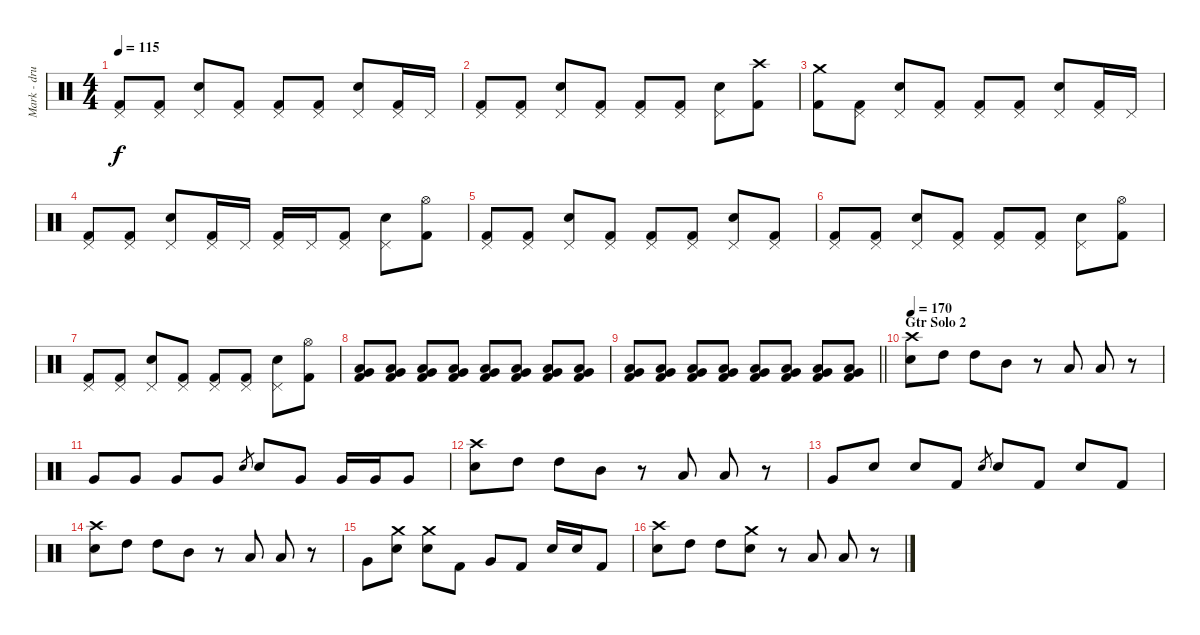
\track ("Mark - drums" "Mark - dru") {instrument percussion}
\staff {score}
\articulation defaults
\ts (4 4)
\tempo 115
\clef neutral
\ks c
("Kick (hit) 2" "Pedal Hi-Hat (hit)").8{dy f} ("Kick (hit) 2" "Pedal Hi-Hat (hit)").8 ("Electric Snare (hit)" "Pedal Hi-Hat (hit)").8 ("Kick (hit) 2" "Pedal Hi-Hat (hit)").8 ("Kick (hit) 2" "Pedal Hi-Hat (hit)").8 ("Kick (hit) 2" "Pedal Hi-Hat (hit)").8 ("Electric Snare (hit)" "Pedal Hi-Hat (hit)").8 ("Kick (hit) 2" "Pedal Hi-Hat (hit)").16 "Pedal Hi-Hat (hit)".16 |
("Kick (hit) 2" "Pedal Hi-Hat (hit)").8 ("Kick (hit) 2" "Pedal Hi-Hat (hit)").8 ("Electric Snare (hit)" "Pedal Hi-Hat (hit)").8 ("Kick (hit) 2" "Pedal Hi-Hat (hit)").8 ("Kick (hit) 2" "Pedal Hi-Hat (hit)").8 ("Kick (hit) 2" "Pedal Hi-Hat (hit)").8 ("Electric Snare (hit)" "Pedal Hi-Hat (hit)").8 ("Kick (hit) 2" "Crash high (hit)").8 |
("Kick (hit) 2" "Crash medium (hit)").8 ("Kick (hit) 2" "Pedal Hi-Hat (hit)").8 ("Electric Snare (hit)" "Pedal Hi-Hat (hit)").8 ("Kick (hit) 2" "Pedal Hi-Hat (hit)").8 ("Kick (hit) 2" "Pedal Hi-Hat (hit)").8 ("Kick (hit) 2" "Pedal Hi-Hat (hit)").8 ("Electric Snare (hit)" "Pedal Hi-Hat (hit)").8 ("Kick (hit) 2" "Pedal Hi-Hat (hit)").16 "Pedal Hi-Hat (hit)".16 |
("Kick (hit) 2" "Pedal Hi-Hat (hit)").8 ("Kick (hit) 2" "Pedal Hi-Hat (hit)").8 ("Electric Snare (hit)" "Pedal Hi-Hat (hit)").8 ("Kick (hit) 2" "Pedal Hi-Hat (hit)").16 "Pedal Hi-Hat (hit)".16 ("Kick (hit) 2" "Pedal Hi-Hat (hit)").16 "Pedal Hi-Hat (hit)".16 ("Kick (hit) 2" "Pedal Hi-Hat (hit)").8 ("Electric Snare (hit)" "Pedal Hi-Hat (hit)").8 ("Kick (hit) 2" "Hi-Hat (open)").8 |
("Kick (hit) 2" "Pedal Hi-Hat (hit)").8 ("Kick (hit) 2" "Pedal Hi-Hat (hit)").8 ("Electric Snare (hit)" "Pedal Hi-Hat (hit)").8 ("Kick (hit) 2" "Pedal Hi-Hat (hit)").8 ("Kick (hit) 2" "Pedal Hi-Hat (hit)").8 ("Kick (hit) 2" "Pedal Hi-Hat (hit)").8 ("Electric Snare (hit)" "Pedal Hi-Hat (hit)").8 ("Kick (hit) 2" "Pedal Hi-Hat (hit)").8 |
("Kick (hit) 2" "Pedal Hi-Hat (hit)").8 ("Kick (hit) 2" "Pedal Hi-Hat (hit)").8 ("Electric Snare (hit)" "Pedal Hi-Hat (hit)").8 ("Kick (hit) 2" "Pedal Hi-Hat (hit)").8 ("Kick (hit) 2" "Pedal Hi-Hat (hit)").8 ("Kick (hit) 2" "Pedal Hi-Hat (hit)").8 ("Electric Snare (hit)" "Pedal Hi-Hat (hit)").8 ("Kick (hit) 2" "Hi-Hat (open)").8 |
("Kick (hit) 2" "Pedal Hi-Hat (hit)").8 ("Kick (hit) 2" "Pedal Hi-Hat (hit)").8 ("Electric Snare (hit)" "Pedal Hi-Hat (hit)").8 ("Kick (hit) 2" "Pedal Hi-Hat (hit)").8 ("Kick (hit) 2" "Pedal Hi-Hat (hit)").8 ("Kick (hit) 2" "Pedal Hi-Hat (hit)").8 ("Electric Snare (hit)" "Pedal Hi-Hat (hit)").8 ("Kick (hit) 2" "Hi-Hat (open)").8 |
("Kick (hit) 2" "Low Tom (hit)" "Very Low Tom (hit)").8 ("Kick (hit) 2" "Low Tom (hit)" "Very Low Tom (hit)").8 ("Kick (hit) 2" "Low Tom (hit)" "Very Low Tom (hit)").8 ("Kick (hit) 2" "Low Tom (hit)" "Very Low Tom (hit)").8 ("Kick (hit) 2" "Low Tom (hit)" "Very Low Tom (hit)").8 ("Kick (hit) 2" "Low Tom (hit)" "Very Low Tom (hit)").8 ("Kick (hit) 2" "Low Tom (hit)" "Very Low Tom (hit)").8 ("Kick (hit) 2" "Low Tom (hit)" "Very Low Tom (hit)").8 |
\barLineRight lightlight
("Kick (hit) 2" "Low Tom (hit)" "Very Low Tom (hit)").8 ("Kick (hit) 2" "Low Tom (hit)" "Very Low Tom (hit)").8 ("Kick (hit) 2" "Low Tom (hit)" "Very Low Tom (hit)").8 ("Kick (hit) 2" "Low Tom (hit)" "Very Low Tom (hit)").8 ("Kick (hit) 2" "Low Tom (hit)" "Very Low Tom (hit)").8 ("Kick (hit) 2" "Low Tom (hit)" "Very Low Tom (hit)").8 ("Kick (hit) 2" "Low Tom (hit)" "Very Low Tom (hit)").8 ("Kick (hit) 2" "Low Tom (hit)" "Very Low Tom (hit)").8 |
\section ("" "Gtr Solo 2")
\tempo 170
("Electric Snare (hit)" "Crash high (hit)").8 "High Tom (hit)".8 "High Tom (hit)".8 "Mid Tom (hit)".8 r.8 "Low Tom (hit)".8 "Low Tom (hit)".8 r.8 |
"Very Low Tom (hit)".8 "Very Low Tom (hit)".8 "Very Low Tom (hit)".8 "Very Low Tom (hit)".8 "Electric Snare (hit)".8{gr} "Electric Snare (hit)".8 "Very Low Tom (hit)".8 "Very Low Tom (hit)".16 "Very Low Tom (hit)".16 "Very Low Tom (hit)".8 |
("Electric Snare (hit)" "Crash high (hit)").8 "High Tom (hit)".8 "High Tom (hit)".8 "Mid Tom (hit)".8 r.8 "Low Tom (hit)".8 "Low Tom (hit)".8 r.8 |
"Very Low Tom (hit)".8 "Electric Snare (hit)".8 "Electric Snare (hit)".8 "Kick (hit) 2".8 "Electric Snare (hit)".8{gr} "Electric Snare (hit)".8 "Kick (hit) 2".8 "Electric Snare (hit)".8 "Kick (hit) 2".8 |
("Electric Snare (hit)" "Crash high (hit)").8 "High Tom (hit)".8 "High Tom (hit)".8 "Mid Tom (hit)".8 r.8 "Low Tom (hit)".8 "Low Tom (hit)".8 r.8 |
"Very Low Tom (hit)".8 ("Electric Snare (hit)" "Crash medium (hit)").8 ("Electric Snare (hit)" "Crash medium (hit)").8 "Kick (hit) 2".8 "Very Low Tom (hit)".8 "Kick (hit) 2".8 "Electric Snare (hit)".16 "Electric Snare (hit)".16 "Kick (hit) 2".8 |
("Electric Snare (hit)" "Crash high (hit)").8 "High Tom (hit)".8 "High Tom (hit)".8 ("Electric Snare (hit)" "Crash medium (hit)").8 r.8 "Low Tom (hit)".8 "Low Tom (hit)".8 r.8
